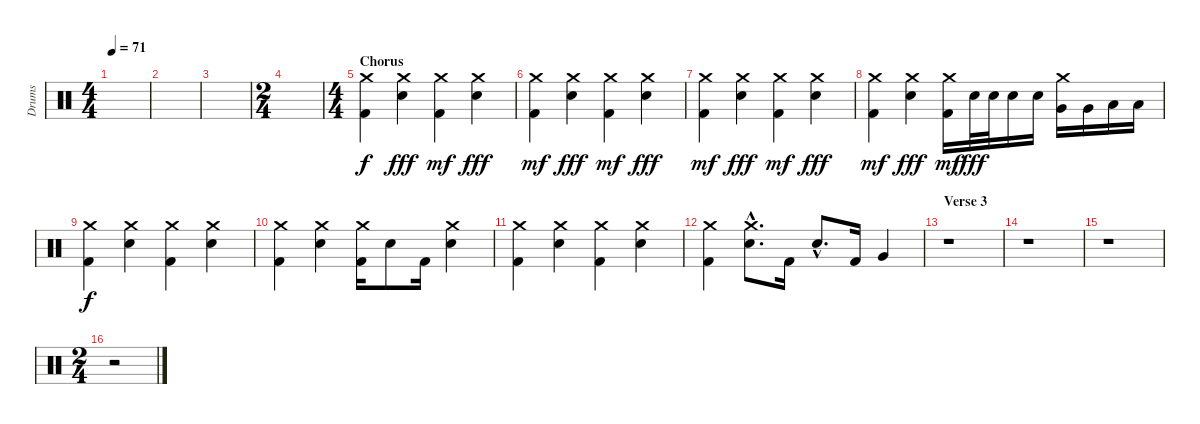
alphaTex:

\track ("Drums" "Drums") {instrument percussion}
\staff {score}
\articulation defaults
\ts (4 4)
\tempo 71
\clef neutral
\ks c
|
|
|
\ts (2 4)
|
\ts (4 4)
\section ("" "Chorus")
("Crash medium (hit)" "Kick (hit) 2").4 ("Crash medium (hit)" "Electric Snare (hit)").4{dy fff} ("Crash medium (hit)" "Kick (hit) 2").4{dy mf} ("Crash medium (hit)" "Electric Snare (hit)").4{dy fff} |
("Crash medium (hit)" "Kick (hit) 2").4{dy mf} ("Crash medium (hit)" "Electric Snare (hit)").4{dy fff} ("Crash medium (hit)" "Kick (hit) 2").4{dy mf} ("Crash medium (hit)" "Electric Snare (hit)").4{dy fff} |
("Crash medium (hit)" "Kick (hit) 2").4{dy mf} ("Crash medium (hit)" "Electric Snare (hit)").4{dy fff} ("Crash medium (hit)" "Kick (hit) 2").4{dy mf} ("Crash medium (hit)" "Electric Snare (hit)").4{dy fff} |
("Crash medium (hit)" "Kick (hit) 2").4{dy mf} ("Crash medium (hit)" "Electric Snare (hit)").4{dy fff} ("Crash medium (hit)" "Kick (hit) 2").16{dy mf} "Electric Snare (hit)".32{dy fff} "Electric Snare (hit)".32 "Electric Snare (hit)".16 "Electric Snare (hit)".16 ("Crash medium (hit)" "Very Low Tom (hit)").16 "Very Low Tom (hit)".16 "Low Floor Tom (hit)".16 "Low Floor Tom (hit)".16 |
("Crash medium (hit)" "Kick (hit) 2").4{dy f} ("Crash medium (hit)" "Electric Snare (hit)").4 ("Crash medium (hit)" "Kick (hit) 2").4 ("Crash medium (hit)" "Electric Snare (hit)").4 |
("Crash medium (hit)" "Kick (hit) 2").4 ("Crash medium (hit)" "Electric Snare (hit)").4 ("Crash medium (hit)" "Kick (hit) 2").16 "Electric Snare (hit)".8 "Kick (hit) 2".16 ("Crash medium (hit)" "Electric Snare (hit)").4 |
("Crash medium (hit)" "Kick (hit) 2").4 ("Crash medium (hit)" "Electric Snare (hit)").4 ("Crash medium (hit)" "Kick (hit) 2").4 ("Crash medium (hit)" "Electric Snare (hit)").4 |
("Crash medium (hit)" "Kick (hit) 2").4 ("Crash medium (hit)"{hac} "Electric Snare (hit)"{hac}).8{d} "Kick (hit) 2".16 "Electric Snare (hit)"{hac}.8{d} "Kick (hit) 2".16 "Very Low Tom (hit)".4 |
\section ("" "Verse 3")
r.1 |
r.1 |
r.1 |
\ts (2 4)
r.2
